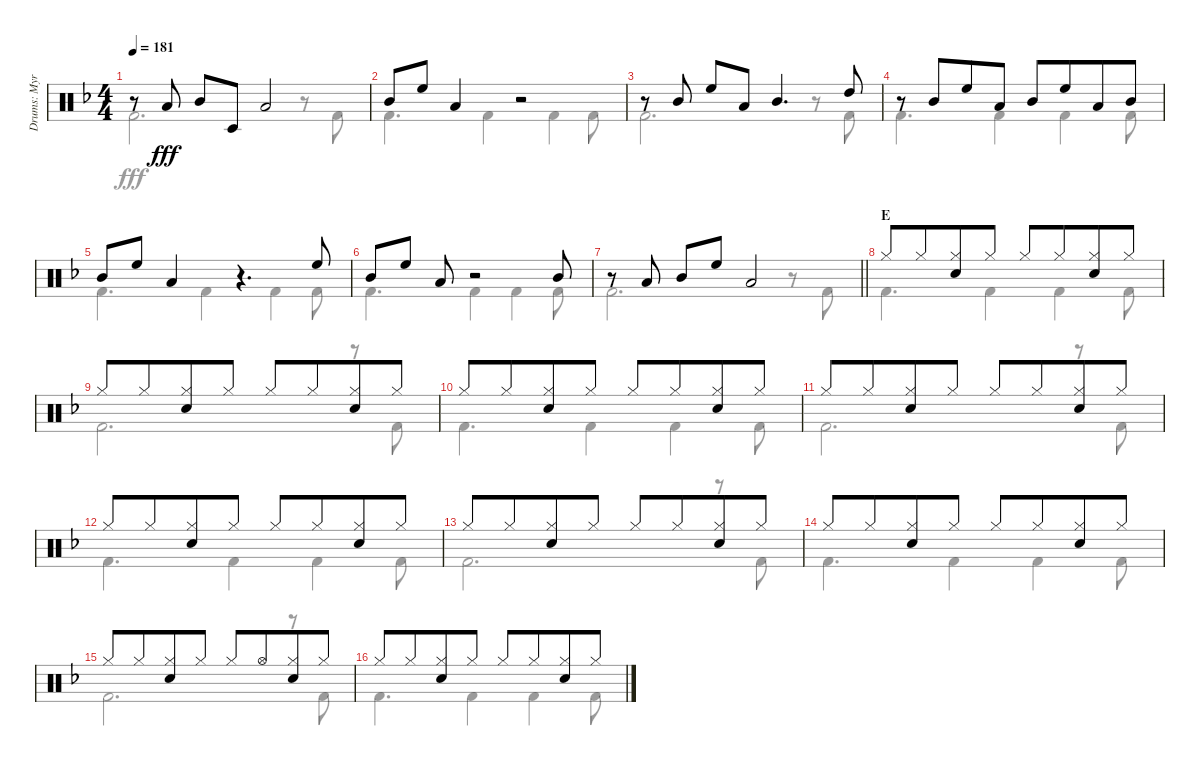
\track ("Drums: Myron" "Drums: Myr") {instrument percussion}
\staff {score}
\articulation defaults
\voice
\ts (4 4)
\tempo 181
\clef neutral
\ks f
r.8{dy fff} "Low Tom (hit)".8 "Mid Tom (hit)".8 "Timbale low (hit)".8 "Low Tom (hit)".2 |
"Mid Tom (hit)".8 "High Floor Tom (hit)".8 "Low Tom (hit)".4 r.2 |
r.8 "Mid Tom (hit)".8 "High Floor Tom (hit)".8 "Low Tom (hit)".8 "Mid Tom (hit)".4{d} "High Tom (hit)".8 |
r.8 "Mid Tom (hit)".8{beam merge} "High Floor Tom (hit)".8 "Low Tom (hit)".8 "Mid Tom (hit)".8 "High Floor Tom (hit)".8{beam merge} "Low Tom (hit)".8 "Mid Tom (hit)".8 |
"Mid Tom (hit)".8 "High Floor Tom (hit)".8 "Low Tom (hit)".4 r.4{d} "High Floor Tom (hit)".8 |
"Mid Tom (hit)".8 "High Floor Tom (hit)".8 "Low Tom (hit)".8 r.2 "Mid Tom (hit)".8 |
\barLineRight lightlight
r.8 "Low Tom (hit)".8 "Mid Tom (hit)".8 "High Floor Tom (hit)".8 "Low Tom (hit)".2 |
\section ("" "E")
"Hi-Hat (closed)".8 "Hi-Hat (closed)".8{beam merge} ("Hi-Hat (closed)" "Electric Snare (hit)").8 "Hi-Hat (closed)".8 "Hi-Hat (closed)".8 "Hi-Hat (closed)".8{beam merge} ("Hi-Hat (closed)" "Electric Snare (hit)").8 "Hi-Hat (closed)".8 |
"Hi-Hat (closed)".8 "Hi-Hat (closed)".8{beam merge} ("Hi-Hat (closed)" "Electric Snare (hit)").8 "Hi-Hat (closed)".8 "Hi-Hat (closed)".8 "Hi-Hat (closed)".8{beam merge} ("Hi-Hat (closed)" "Electric Snare (hit)").8 "Hi-Hat (closed)".8 |
"Hi-Hat (closed)".8 "Hi-Hat (closed)".8{beam merge} ("Hi-Hat (closed)" "Electric Snare (hit)").8 "Hi-Hat (closed)".8 "Hi-Hat (closed)".8 "Hi-Hat (closed)".8{beam merge} ("Hi-Hat (closed)" "Electric Snare (hit)").8 "Hi-Hat (closed)".8 |
"Hi-Hat (closed)".8 "Hi-Hat (closed)".8{beam merge} ("Hi-Hat (closed)" "Electric Snare (hit)").8 "Hi-Hat (closed)".8 "Hi-Hat (closed)".8 "Hi-Hat (closed)".8{beam merge} ("Hi-Hat (closed)" "Electric Snare (hit)").8 "Hi-Hat (closed)".8 |
"Hi-Hat (closed)".8 "Hi-Hat (closed)".8{beam merge} ("Hi-Hat (closed)" "Electric Snare (hit)").8 "Hi-Hat (closed)".8 "Hi-Hat (closed)".8 "Hi-Hat (closed)".8{beam merge} ("Hi-Hat (closed)" "Electric Snare (hit)").8 "Hi-Hat (closed)".8 |
"Hi-Hat (closed)".8 "Hi-Hat (closed)".8{beam merge} ("Hi-Hat (closed)" "Electric Snare (hit)").8 "Hi-Hat (closed)".8 "Hi-Hat (closed)".8 "Hi-Hat (closed)".8{beam merge} ("Hi-Hat (closed)" "Electric Snare (hit)").8 "Hi-Hat (closed)".8 |
"Hi-Hat (closed)".8 "Hi-Hat (closed)".8{beam merge} ("Hi-Hat (closed)" "Electric Snare (hit)").8 "Hi-Hat (closed)".8 "Hi-Hat (closed)".8 "Hi-Hat (closed)".8{beam merge} ("Hi-Hat (closed)" "Electric Snare (hit)").8 "Hi-Hat (closed)".8 |
"Hi-Hat (closed)".8 "Hi-Hat (closed)".8{beam merge} ("Hi-Hat (closed)" "Electric Snare (hit)").8 "Hi-Hat (closed)".8 "Hi-Hat (closed)".8 "Hi-Hat (open)".8{beam merge} ("Hi-Hat (closed)" "Electric Snare (hit)").8 "Hi-Hat (closed)".8 |
"Hi-Hat (closed)".8 "Hi-Hat (closed)".8{beam merge} ("Hi-Hat (closed)" "Electric Snare (hit)").8 "Hi-Hat (closed)".8 "Hi-Hat (closed)".8 "Hi-Hat (closed)".8{beam merge} ("Hi-Hat (closed)" "Electric Snare (hit)").8 "Hi-Hat (closed)".8
\voice
\clef neutral
\ottava regular
\simile none
\ks f "Kick (hit) 2".2{d dy fff}
r.8 "Kick (hit) 2".8 |
"Kick (hit) 2".4{d} "Kick (hit) 2".4 "Kick (hit) 2".4 "Kick (hit) 2".8 |
"Kick (hit) 2".2{d} r.8 "Kick (hit) 2".8 |
"Kick (hit) 2".4{d} "Kick (hit) 2".4 "Kick (hit) 2".4 "Kick (hit) 2".8 |
"Kick (hit) 2".4{d} "Kick (hit) 2".4 "Kick (hit) 2".4 "Kick (hit) 2".8 |
"Kick (hit) 2".4{d} "Kick (hit) 2".4 "Kick (hit) 2".4 "Kick (hit) 2".8 |
\barLineRight lightlight "Kick (hit) 2".2{d}
r.8 "Kick (hit) 2".8 |
"Kick (hit) 2".4{d} "Kick (hit) 2".4 "Kick (hit) 2".4 "Kick (hit) 2".8 |
"Kick (hit) 2".2{d} r.8 "Kick (hit) 2".8 |
"Kick (hit) 2".4{d} "Kick (hit) 2".4 "Kick (hit) 2".4 "Kick (hit) 2".8 |
"Kick (hit) 2".2{d} r.8 "Kick (hit) 2".8 |
"Kick (hit) 2".4{d} "Kick (hit) 2".4 "Kick (hit) 2".4 "Kick (hit) 2".8 |
"Kick (hit) 2".2{d} r.8 "Kick (hit) 2".8 |
"Kick (hit) 2".4{d} "Kick (hit) 2".4 "Kick (hit) 2".4 "Kick (hit) 2".8 |
"Kick (hit) 2".2{d} r.8 "Kick (hit) 2".8 |
"Kick (hit) 2".4{d} "Kick (hit) 2".4 "Kick (hit) 2".4 "Kick (hit) 2".8
